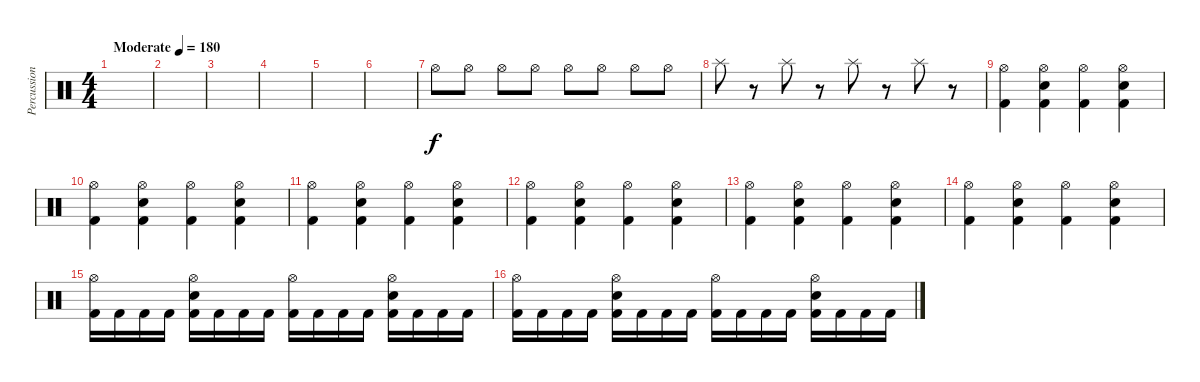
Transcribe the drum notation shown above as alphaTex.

\track ("Percussion" "Percussion") {instrument percussion}
\staff {score}
\articulation defaults
\ts (4 4)
\tempo (180 "Moderate")
\clef neutral
\ks c
|
|
|
|
|
|
"Hi-Hat (open)".8 "Hi-Hat (open)".8 "Hi-Hat (open)".8 "Hi-Hat (open)".8 "Hi-Hat (open)".8 "Hi-Hat (open)".8 "Hi-Hat (open)".8 "Hi-Hat (open)".8 |
"Splash (hit)".8 r.8 "Splash (hit)".8 r.8 "Splash (hit)".8 r.8 "Splash (hit)".8 r.8 |
("Kick (hit) 2" "Hi-Hat (open)").4 ("Kick (hit) 2" "Electric Snare (hit)" "Hi-Hat (open)").4 ("Kick (hit) 2" "Hi-Hat (open)").4 ("Kick (hit) 2" "Electric Snare (hit)" "Hi-Hat (open)").4 |
("Kick (hit) 2" "Hi-Hat (open)").4 ("Kick (hit) 2" "Electric Snare (hit)" "Hi-Hat (open)").4 ("Kick (hit) 2" "Hi-Hat (open)").4 ("Kick (hit) 2" "Electric Snare (hit)" "Hi-Hat (open)").4 |
("Kick (hit) 2" "Hi-Hat (open)").4 ("Kick (hit) 2" "Electric Snare (hit)" "Hi-Hat (open)").4 ("Kick (hit) 2" "Hi-Hat (open)").4 ("Kick (hit) 2" "Electric Snare (hit)" "Hi-Hat (open)").4 |
("Kick (hit) 2" "Hi-Hat (open)").4 ("Kick (hit) 2" "Electric Snare (hit)" "Hi-Hat (open)").4 ("Kick (hit) 2" "Hi-Hat (open)").4 ("Kick (hit) 2" "Electric Snare (hit)" "Hi-Hat (open)").4 |
("Kick (hit) 2" "Hi-Hat (open)").4 ("Kick (hit) 2" "Electric Snare (hit)" "Hi-Hat (open)").4 ("Kick (hit) 2" "Hi-Hat (open)").4 ("Kick (hit) 2" "Electric Snare (hit)" "Hi-Hat (open)").4 |
("Kick (hit) 2" "Hi-Hat (open)").4 ("Kick (hit) 2" "Electric Snare (hit)" "Hi-Hat (open)").4 ("Kick (hit) 2" "Hi-Hat (open)").4 ("Kick (hit) 2" "Electric Snare (hit)" "Hi-Hat (open)").4 |
("Hi-Hat (open)" "Kick (hit) 2").16 "Kick (hit) 2".16 "Kick (hit) 2".16 "Kick (hit) 2".16 ("Hi-Hat (open)" "Snare (hit) 2" "Kick (hit) 2").16 "Kick (hit) 2".16 "Kick (hit) 2".16 "Kick (hit) 2".16 ("Hi-Hat (open)" "Kick (hit) 2").16 "Kick (hit) 2".16 "Kick (hit) 2".16 "Kick (hit) 2".16 ("Hi-Hat (open)" "Snare (hit) 2" "Kick (hit) 2").16 "Kick (hit) 2".16 "Kick (hit) 2".16 "Kick (hit) 2".16 |
("Hi-Hat (open)" "Kick (hit) 2").16 "Kick (hit) 2".16 "Kick (hit) 2".16 "Kick (hit) 2".16 ("Hi-Hat (open)" "Snare (hit) 2" "Kick (hit) 2").16 "Kick (hit) 2".16 "Kick (hit) 2".16 "Kick (hit) 2".16 ("Hi-Hat (open)" "Kick (hit) 2").16 "Kick (hit) 2".16 "Kick (hit) 2".16 "Kick (hit) 2".16 ("Hi-Hat (open)" "Snare (hit) 2" "Kick (hit) 2").16 "Kick (hit) 2".16 "Kick (hit) 2".16 "Kick (hit) 2".16
